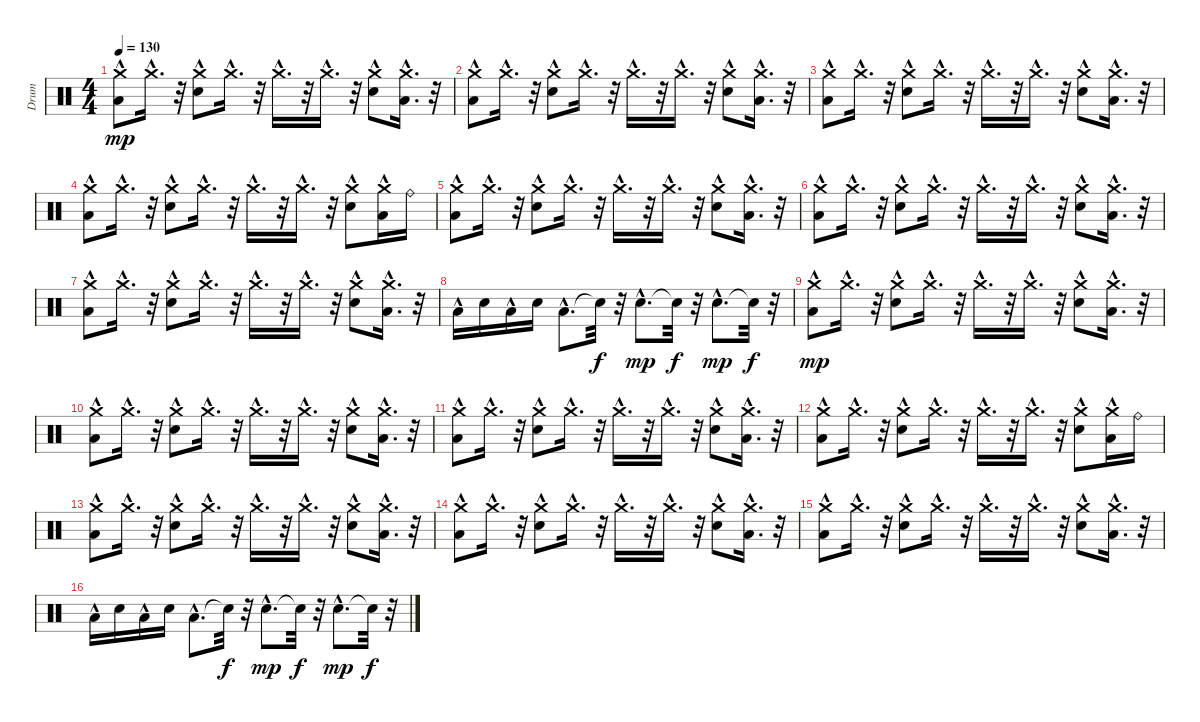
\track ("Drum" "Drum") {instrument percussion}
\staff {score}
\articulation defaults
\ts (4 4)
\tempo 130
\clef neutral
\ks c
("Low Tom (hit)"{hac} "Crash medium (hit)"{hac}).8{dy mp} "Crash medium (hit)"{hac}.16{d} r.32 ("Snare (hit) 2"{hac} "Crash medium (hit)"{hac}).8 "Crash medium (hit)"{hac}.16{d} r.32 "Crash medium (hit)"{hac}.16{d} r.32 "Crash medium (hit)"{hac}.16{d} r.32 ("Snare (hit) 2"{hac} "Crash medium (hit)"{hac}).8 ("Low Tom (hit)"{hac} "Crash medium (hit)"{hac}).16{d} r.32 |
("Low Tom (hit)"{hac} "Crash medium (hit)"{hac}).8 "Crash medium (hit)"{hac}.16{d} r.32 ("Snare (hit) 2"{hac} "Crash medium (hit)"{hac}).8 "Crash medium (hit)"{hac}.16{d} r.32 "Crash medium (hit)"{hac}.16{d} r.32 "Crash medium (hit)"{hac}.16{d} r.32 ("Snare (hit) 2"{hac} "Crash medium (hit)"{hac}).8 ("Low Tom (hit)"{hac} "Crash medium (hit)"{hac}).16{d} r.32 |
("Low Tom (hit)"{hac} "Crash medium (hit)"{hac}).8 "Crash medium (hit)"{hac}.16{d} r.32 ("Snare (hit) 2"{hac} "Crash medium (hit)"{hac}).8 "Crash medium (hit)"{hac}.16{d} r.32 "Crash medium (hit)"{hac}.16{d} r.32 "Crash medium (hit)"{hac}.16{d} r.32 ("Snare (hit) 2"{hac} "Crash medium (hit)"{hac}).8 ("Low Tom (hit)"{hac} "Crash medium (hit)"{hac}).16{d} r.32 |
("Low Tom (hit)"{hac} "Crash medium (hit)"{hac}).8 "Crash medium (hit)"{hac}.16{d} r.32 ("Snare (hit) 2"{hac} "Crash medium (hit)"{hac}).8 "Crash medium (hit)"{hac}.16{d} r.32 "Crash medium (hit)"{hac}.16{d} r.32 "Crash medium (hit)"{hac}.16{d} r.32 ("Snare (hit) 2"{hac} "Crash medium (hit)"{hac}).8 ("Low Tom (hit)"{hac} "Crash medium (hit)").16 "Ride (bell)".16 |
("Low Tom (hit)"{hac} "Crash medium (hit)"{hac}).8 "Crash medium (hit)"{hac}.16{d} r.32 ("Snare (hit) 2"{hac} "Crash medium (hit)"{hac}).8 "Crash medium (hit)"{hac}.16{d} r.32 "Crash medium (hit)"{hac}.16{d} r.32 "Crash medium (hit)"{hac}.16{d} r.32 ("Snare (hit) 2"{hac} "Crash medium (hit)"{hac}).8 ("Low Tom (hit)"{hac} "Crash medium (hit)"{hac}).16{d} r.32 |
("Low Tom (hit)"{hac} "Crash medium (hit)"{hac}).8 "Crash medium (hit)"{hac}.16{d} r.32 ("Snare (hit) 2"{hac} "Crash medium (hit)"{hac}).8 "Crash medium (hit)"{hac}.16{d} r.32 "Crash medium (hit)"{hac}.16{d} r.32 "Crash medium (hit)"{hac}.16{d} r.32 ("Snare (hit) 2"{hac} "Crash medium (hit)"{hac}).8 ("Low Tom (hit)"{hac} "Crash medium (hit)"{hac}).16{d} r.32 |
("Low Tom (hit)"{hac} "Crash medium (hit)"{hac}).8 "Crash medium (hit)"{hac}.16{d} r.32 ("Snare (hit) 2"{hac} "Crash medium (hit)"{hac}).8 "Crash medium (hit)"{hac}.16{d} r.32 "Crash medium (hit)"{hac}.16{d} r.32 "Crash medium (hit)"{hac}.16{d} r.32 ("Snare (hit) 2"{hac} "Crash medium (hit)"{hac}).8 ("Low Tom (hit)"{hac} "Crash medium (hit)"{hac}).16{d} r.32 |
"Low Tom (hit)"{hac}.16 "Snare (hit) 2".16 "Low Tom (hit)"{hac}.16 "Snare (hit) 2".16 "Low Tom (hit)"{hac}.8{d} "Snare (hit)"{t}.32{dy f} r.32 "Snare (hit) 2"{hac}.8{d dy mp} "Snare (hit)"{t}.32{dy f} r.32 "Snare (hit) 2"{hac}.8{d dy mp} "Snare (hit)"{t}.32{dy f} r.32 |
("Low Tom (hit)"{hac} "Crash medium (hit)"{hac}).8{dy mp} "Crash medium (hit)"{hac}.16{d} r.32 ("Snare (hit) 2"{hac} "Crash medium (hit)"{hac}).8 "Crash medium (hit)"{hac}.16{d} r.32 "Crash medium (hit)"{hac}.16{d} r.32 "Crash medium (hit)"{hac}.16{d} r.32 ("Snare (hit) 2"{hac} "Crash medium (hit)"{hac}).8 ("Low Tom (hit)"{hac} "Crash medium (hit)"{hac}).16{d} r.32 |
("Low Tom (hit)"{hac} "Crash medium (hit)"{hac}).8 "Crash medium (hit)"{hac}.16{d} r.32 ("Snare (hit) 2"{hac} "Crash medium (hit)"{hac}).8 "Crash medium (hit)"{hac}.16{d} r.32 "Crash medium (hit)"{hac}.16{d} r.32 "Crash medium (hit)"{hac}.16{d} r.32 ("Snare (hit) 2"{hac} "Crash medium (hit)"{hac}).8 ("Low Tom (hit)"{hac} "Crash medium (hit)"{hac}).16{d} r.32 |
("Low Tom (hit)"{hac} "Crash medium (hit)"{hac}).8 "Crash medium (hit)"{hac}.16{d} r.32 ("Snare (hit) 2"{hac} "Crash medium (hit)"{hac}).8 "Crash medium (hit)"{hac}.16{d} r.32 "Crash medium (hit)"{hac}.16{d} r.32 "Crash medium (hit)"{hac}.16{d} r.32 ("Snare (hit) 2"{hac} "Crash medium (hit)"{hac}).8 ("Low Tom (hit)"{hac} "Crash medium (hit)"{hac}).16{d} r.32 |
("Low Tom (hit)"{hac} "Crash medium (hit)"{hac}).8 "Crash medium (hit)"{hac}.16{d} r.32 ("Snare (hit) 2"{hac} "Crash medium (hit)"{hac}).8 "Crash medium (hit)"{hac}.16{d} r.32 "Crash medium (hit)"{hac}.16{d} r.32 "Crash medium (hit)"{hac}.16{d} r.32 ("Snare (hit) 2"{hac} "Crash medium (hit)"{hac}).8 ("Low Tom (hit)"{hac} "Crash medium (hit)").16 "Ride (bell)".16 |
("Low Tom (hit)"{hac} "Crash medium (hit)"{hac}).8 "Crash medium (hit)"{hac}.16{d} r.32 ("Snare (hit) 2"{hac} "Crash medium (hit)"{hac}).8 "Crash medium (hit)"{hac}.16{d} r.32 "Crash medium (hit)"{hac}.16{d} r.32 "Crash medium (hit)"{hac}.16{d} r.32 ("Snare (hit) 2"{hac} "Crash medium (hit)"{hac}).8 ("Low Tom (hit)"{hac} "Crash medium (hit)"{hac}).16{d} r.32 |
("Low Tom (hit)"{hac} "Crash medium (hit)"{hac}).8 "Crash medium (hit)"{hac}.16{d} r.32 ("Snare (hit) 2"{hac} "Crash medium (hit)"{hac}).8 "Crash medium (hit)"{hac}.16{d} r.32 "Crash medium (hit)"{hac}.16{d} r.32 "Crash medium (hit)"{hac}.16{d} r.32 ("Snare (hit) 2"{hac} "Crash medium (hit)"{hac}).8 ("Low Tom (hit)"{hac} "Crash medium (hit)"{hac}).16{d} r.32 |
("Low Tom (hit)"{hac} "Crash medium (hit)"{hac}).8 "Crash medium (hit)"{hac}.16{d} r.32 ("Snare (hit) 2"{hac} "Crash medium (hit)"{hac}).8 "Crash medium (hit)"{hac}.16{d} r.32 "Crash medium (hit)"{hac}.16{d} r.32 "Crash medium (hit)"{hac}.16{d} r.32 ("Snare (hit) 2"{hac} "Crash medium (hit)"{hac}).8 ("Low Tom (hit)"{hac} "Crash medium (hit)"{hac}).16{d} r.32 |
"Low Tom (hit)"{hac}.16 "Snare (hit) 2".16 "Low Tom (hit)"{hac}.16 "Snare (hit) 2".16 "Low Tom (hit)"{hac}.8{d} "Snare (hit)"{t}.32{dy f} r.32 "Snare (hit) 2"{hac}.8{d dy mp} "Snare (hit)"{t}.32{dy f} r.32 "Snare (hit) 2"{hac}.8{d dy mp} "Snare (hit)"{t}.32{dy f} r.32
